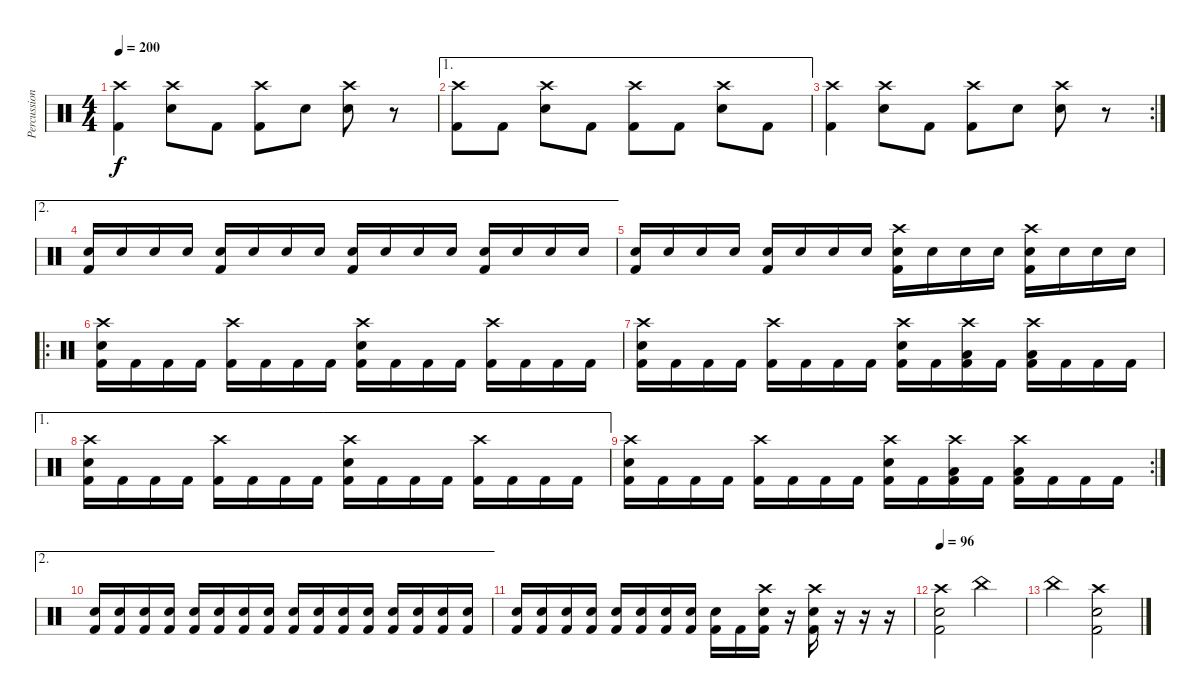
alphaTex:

\track ("Percussion" "Percussion") {instrument percussion}
\staff {score}
\articulation defaults
\ts (4 4)
\tempo 200
\clef neutral
\ks c
("Crash high (hit)" "Kick (hit) 2").4{dy f} ("Crash high (hit)" "Electric Snare (hit)").8 "Kick (hit) 2".8 ("Crash high (hit)" "Kick (hit) 2").8 "Electric Snare (hit)".8 ("Crash high (hit)" "Electric Snare (hit)").8 r.8 |
\ae 1
("Crash high (hit)" "Kick (hit) 2").8 "Kick (hit) 2".8 ("Crash high (hit)" "Electric Snare (hit)").8 "Kick (hit) 2".8 ("Crash high (hit)" "Kick (hit) 2").8 "Kick (hit) 2".8 ("Crash high (hit)" "Electric Snare (hit)").8 "Kick (hit) 2".8 |
\rc 2
("Crash high (hit)" "Kick (hit) 2").4 ("Crash high (hit)" "Electric Snare (hit)").8 "Kick (hit) 2".8 ("Crash high (hit)" "Kick (hit) 2").8 "Electric Snare (hit)".8 ("Crash high (hit)" "Electric Snare (hit)").8 r.8 |
\ae 2
("Electric Snare (hit)" "Kick (hit) 2").16 "Electric Snare (hit)".16 "Electric Snare (hit)".16 "Electric Snare (hit)".16 ("Electric Snare (hit)" "Kick (hit) 2").16 "Electric Snare (hit)".16 "Electric Snare (hit)".16 "Electric Snare (hit)".16 ("Electric Snare (hit)" "Kick (hit) 2").16 "Electric Snare (hit)".16 "Electric Snare (hit)".16 "Electric Snare (hit)".16 ("Electric Snare (hit)" "Kick (hit) 2").16 "Electric Snare (hit)".16 "Electric Snare (hit)".16 "Electric Snare (hit)".16 |
("Electric Snare (hit)" "Kick (hit) 2").16 "Electric Snare (hit)".16 "Electric Snare (hit)".16 "Electric Snare (hit)".16 ("Electric Snare (hit)" "Kick (hit) 2").16 "Electric Snare (hit)".16 "Electric Snare (hit)".16 "Electric Snare (hit)".16 ("Crash high (hit)" "Electric Snare (hit)" "Kick (hit) 2").16 "Electric Snare (hit)".16 "Electric Snare (hit)".16 "Electric Snare (hit)".16 ("Crash high (hit)" "Electric Snare (hit)" "Kick (hit) 2").16 "Electric Snare (hit)".16 "Electric Snare (hit)".16 "Electric Snare (hit)".16 |
\ro
("Crash high (hit)" "Electric Snare (hit)" "Kick (hit) 2").16 "Kick (hit) 2".16 "Kick (hit) 2".16 "Kick (hit) 2".16 ("Crash high (hit)" "Kick (hit) 2").16 "Kick (hit) 2".16 "Kick (hit) 2".16 "Kick (hit) 2".16 ("Crash high (hit)" "Electric Snare (hit)" "Kick (hit) 2").16 "Kick (hit) 2".16 "Kick (hit) 2".16 "Kick (hit) 2".16 ("Crash high (hit)" "Kick (hit) 2").16 "Kick (hit) 2".16 "Kick (hit) 2".16 "Kick (hit) 2".16 |
("Crash high (hit)" "Electric Snare (hit)" "Kick (hit) 2").16 "Kick (hit) 2".16 "Kick (hit) 2".16 "Kick (hit) 2".16 ("Crash high (hit)" "Kick (hit) 2").16 "Kick (hit) 2".16 "Kick (hit) 2".16 "Kick (hit) 2".16 ("Crash high (hit)" "Electric Snare (hit)" "Kick (hit) 2").16 "Kick (hit) 2".16 ("Crash high (hit)" "Low Tom (hit)" "Kick (hit) 2").16 "Kick (hit) 2".16 ("Crash high (hit)" "Low Tom (hit)" "Kick (hit) 2").16 "Kick (hit) 2".16 "Kick (hit) 2".16 "Kick (hit) 2".16 |
\ae 1
("Crash high (hit)" "Electric Snare (hit)" "Kick (hit) 2").16 "Kick (hit) 2".16 "Kick (hit) 2".16 "Kick (hit) 2".16 ("Crash high (hit)" "Kick (hit) 2").16 "Kick (hit) 2".16 "Kick (hit) 2".16 "Kick (hit) 2".16 ("Crash high (hit)" "Electric Snare (hit)" "Kick (hit) 2").16 "Kick (hit) 2".16 "Kick (hit) 2".16 "Kick (hit) 2".16 ("Crash high (hit)" "Kick (hit) 2").16 "Kick (hit) 2".16 "Kick (hit) 2".16 "Kick (hit) 2".16 |
\rc 2
("Crash high (hit)" "Electric Snare (hit)" "Kick (hit) 2").16 "Kick (hit) 2".16 "Kick (hit) 2".16 "Kick (hit) 2".16 ("Crash high (hit)" "Kick (hit) 2").16 "Kick (hit) 2".16 "Kick (hit) 2".16 "Kick (hit) 2".16 ("Crash high (hit)" "Electric Snare (hit)" "Kick (hit) 2").16 "Kick (hit) 2".16 ("Crash high (hit)" "Low Tom (hit)" "Kick (hit) 2").16 "Kick (hit) 2".16 ("Crash high (hit)" "Low Tom (hit)" "Kick (hit) 2").16 "Kick (hit) 2".16 "Kick (hit) 2".16 "Kick (hit) 2".16 |
\ae 2
("Electric Snare (hit)" "Kick (hit) 2").16 ("Electric Snare (hit)" "Kick (hit) 2").16 ("Electric Snare (hit)" "Kick (hit) 2").16 ("Electric Snare (hit)" "Kick (hit) 2").16 ("Electric Snare (hit)" "Kick (hit) 2").16 ("Electric Snare (hit)" "Kick (hit) 2").16 ("Electric Snare (hit)" "Kick (hit) 2").16 ("Electric Snare (hit)" "Kick (hit) 2").16 ("Electric Snare (hit)" "Kick (hit) 2").16 ("Electric Snare (hit)" "Kick (hit) 2").16 ("Electric Snare (hit)" "Kick (hit) 2").16 ("Electric Snare (hit)" "Kick (hit) 2").16 ("Electric Snare (hit)" "Kick (hit) 2").16 ("Electric Snare (hit)" "Kick (hit) 2").16 ("Electric Snare (hit)" "Kick (hit) 2").16 ("Electric Snare (hit)" "Kick (hit) 2").16 |
("Electric Snare (hit)" "Kick (hit) 2").16 ("Electric Snare (hit)" "Kick (hit) 2").16 ("Electric Snare (hit)" "Kick (hit) 2").16 ("Electric Snare (hit)" "Kick (hit) 2").16 ("Electric Snare (hit)" "Kick (hit) 2").16 ("Electric Snare (hit)" "Kick (hit) 2").16 ("Electric Snare (hit)" "Kick (hit) 2").16 ("Electric Snare (hit)" "Kick (hit) 2").16 ("Electric Snare (hit)" "Kick (hit) 2").16 "Kick (hit) 2".16 ("Crash high (hit)" "Electric Snare (hit)" "Kick (hit) 2").16 r.16 ("Crash high (hit)" "Electric Snare (hit)" "Kick (hit) 2").16 r.16 r.16 r.16 |
\tempo 96
("Crash high (hit)" "Electric Snare (hit)" "Kick (hit) 2").2 "China (hit)".2 |
"China (hit)".2 ("Crash high (hit)" "Electric Snare (hit)" "Kick (hit) 2").2
